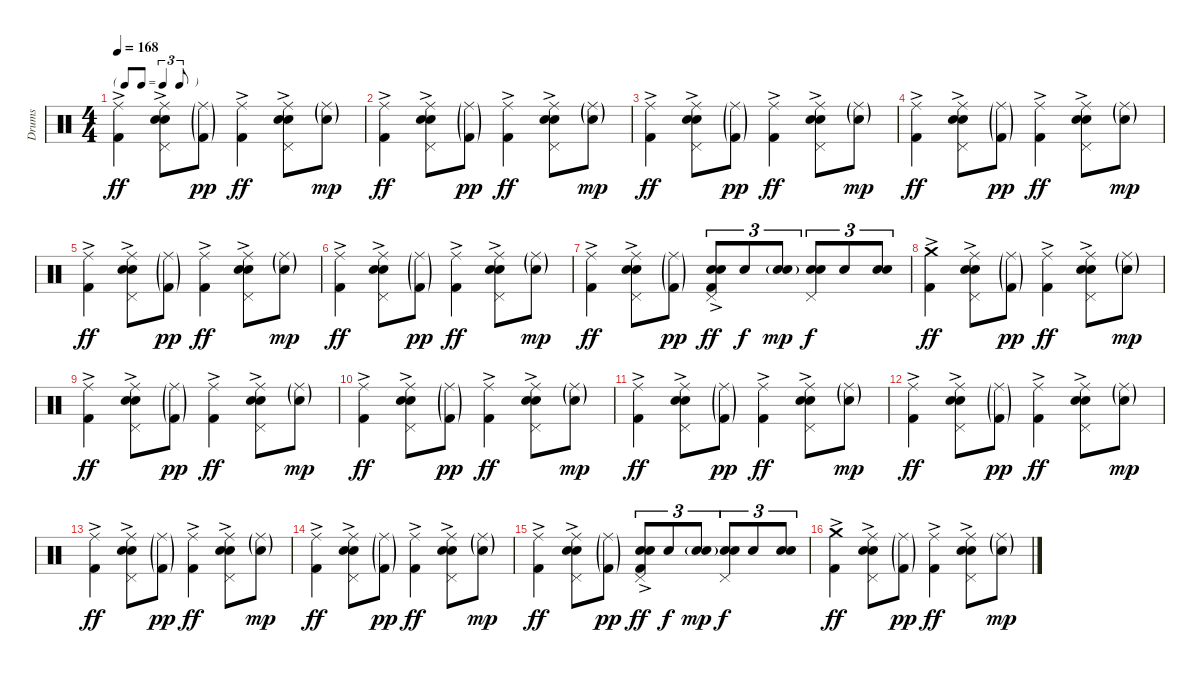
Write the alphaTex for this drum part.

\track ("Drums" "Drums") {instrument percussion}
\staff {score}
\articulation defaults
\ts (4 4)
\tf triplet8th
\tempo 168
\clef neutral
\ks c
("Ride (middle)" "Kick (hit) 2"{ac}).4{dy ff} ("Ride (middle)" "Pedal Hi-Hat (hit)" "Electric Snare (hit)"{ac} "Snare (hit) 2").8 ("Ride (middle)"{g} "Kick (hit) 2"{g}).8{dy pp} ("Ride (middle)" "Kick (hit) 2"{ac}).4{dy ff} ("Ride (middle)" "Pedal Hi-Hat (hit)" "Electric Snare (hit)"{ac} "Snare (hit) 2").8 ("Ride (middle)"{g} "Snare (hit) 2"{g}).8{dy mp} |
("Ride (middle)" "Kick (hit) 2"{ac}).4{dy ff} ("Ride (middle)" "Pedal Hi-Hat (hit)" "Electric Snare (hit)"{ac} "Snare (hit) 2").8 ("Ride (middle)"{g} "Kick (hit) 2"{g}).8{dy pp} ("Ride (middle)" "Kick (hit) 2"{ac}).4{dy ff} ("Ride (middle)" "Pedal Hi-Hat (hit)" "Electric Snare (hit)"{ac} "Snare (hit) 2").8 ("Ride (middle)"{g} "Snare (hit) 2"{g}).8{dy mp} |
("Ride (middle)" "Kick (hit) 2"{ac}).4{dy ff} ("Ride (middle)" "Pedal Hi-Hat (hit)" "Electric Snare (hit)"{ac} "Snare (hit) 2").8 ("Ride (middle)"{g} "Kick (hit) 2"{g}).8{dy pp} ("Ride (middle)" "Kick (hit) 2"{ac}).4{dy ff} ("Ride (middle)" "Pedal Hi-Hat (hit)" "Electric Snare (hit)"{ac} "Snare (hit) 2").8 ("Ride (middle)"{g} "Snare (hit) 2"{g}).8{dy mp} |
("Ride (middle)" "Kick (hit) 2"{ac}).4{dy ff} ("Ride (middle)" "Pedal Hi-Hat (hit)" "Electric Snare (hit)"{ac} "Snare (hit) 2").8 ("Ride (middle)"{g} "Kick (hit) 2"{g}).8{dy pp} ("Ride (middle)" "Kick (hit) 2"{ac}).4{dy ff} ("Ride (middle)" "Pedal Hi-Hat (hit)" "Electric Snare (hit)"{ac} "Snare (hit) 2").8 ("Ride (middle)"{g} "Snare (hit) 2"{g}).8{dy mp} |
("Ride (middle)" "Kick (hit) 2"{ac}).4{dy ff} ("Ride (middle)" "Pedal Hi-Hat (hit)" "Electric Snare (hit)"{ac} "Snare (hit) 2").8 ("Ride (middle)"{g} "Kick (hit) 2"{g}).8{dy pp} ("Ride (middle)" "Kick (hit) 2"{ac}).4{dy ff} ("Ride (middle)" "Pedal Hi-Hat (hit)" "Electric Snare (hit)"{ac} "Snare (hit) 2").8 ("Ride (middle)"{g} "Snare (hit) 2"{g}).8{dy mp} |
("Ride (middle)" "Kick (hit) 2"{ac}).4{dy ff} ("Ride (middle)" "Pedal Hi-Hat (hit)" "Electric Snare (hit)"{ac} "Snare (hit) 2").8 ("Ride (middle)"{g} "Kick (hit) 2"{g}).8{dy pp} ("Ride (middle)" "Kick (hit) 2"{ac}).4{dy ff} ("Ride (middle)" "Pedal Hi-Hat (hit)" "Electric Snare (hit)"{ac} "Snare (hit) 2").8 ("Ride (middle)"{g} "Snare (hit) 2"{g}).8{dy mp} |
("Ride (middle)" "Kick (hit) 2"{ac}).4{dy ff} ("Ride (middle)" "Pedal Hi-Hat (hit)" "Electric Snare (hit)"{ac} "Snare (hit) 2").8 ("Ride (middle)"{g} "Kick (hit) 2"{g}).8{dy pp} ("Pedal Hi-Hat (hit)" "Electric Snare (hit)" "Snare (hit) 2" "Kick (hit) 2"{ac}).8{tu (3 2) dy ff} "Snare (hit) 2".8{tu (3 2) dy f} ("Electric Snare (hit)"{g} "Snare (hit) 2").8{tu (3 2) dy mp} ("Pedal Hi-Hat (hit)" "Electric Snare (hit)" "Snare (hit) 2").8{tu (3 2) dy f} "Snare (hit) 2".8{tu (3 2)} ("Electric Snare (hit)" "Snare (hit) 2").8{tu (3 2)} |
("Crash medium (hit)" "Kick (hit) 2"{ac}).4{dy ff} ("Ride (middle)" "Pedal Hi-Hat (hit)" "Electric Snare (hit)"{ac} "Snare (hit) 2").8 ("Ride (middle)"{g} "Kick (hit) 2"{g}).8{dy pp} ("Ride (middle)" "Kick (hit) 2"{ac}).4{dy ff} ("Ride (middle)" "Pedal Hi-Hat (hit)" "Electric Snare (hit)"{ac} "Snare (hit) 2").8 ("Ride (middle)"{g} "Snare (hit) 2"{g}).8{dy mp} |
("Ride (middle)" "Kick (hit) 2"{ac}).4{dy ff} ("Ride (middle)" "Pedal Hi-Hat (hit)" "Electric Snare (hit)"{ac} "Snare (hit) 2").8 ("Ride (middle)"{g} "Kick (hit) 2"{g}).8{dy pp} ("Ride (middle)" "Kick (hit) 2"{ac}).4{dy ff} ("Ride (middle)" "Pedal Hi-Hat (hit)" "Electric Snare (hit)"{ac} "Snare (hit) 2").8 ("Ride (middle)"{g} "Snare (hit) 2"{g}).8{dy mp} |
("Ride (middle)" "Kick (hit) 2"{ac}).4{dy ff} ("Ride (middle)" "Pedal Hi-Hat (hit)" "Electric Snare (hit)"{ac} "Snare (hit) 2").8 ("Ride (middle)"{g} "Kick (hit) 2"{g}).8{dy pp} ("Ride (middle)" "Kick (hit) 2"{ac}).4{dy ff} ("Ride (middle)" "Pedal Hi-Hat (hit)" "Electric Snare (hit)"{ac} "Snare (hit) 2").8 ("Ride (middle)"{g} "Snare (hit) 2"{g}).8{dy mp} |
("Ride (middle)" "Kick (hit) 2"{ac}).4{dy ff} ("Ride (middle)" "Pedal Hi-Hat (hit)" "Electric Snare (hit)"{ac} "Snare (hit) 2").8 ("Ride (middle)"{g} "Kick (hit) 2"{g}).8{dy pp} ("Ride (middle)" "Kick (hit) 2"{ac}).4{dy ff} ("Ride (middle)" "Pedal Hi-Hat (hit)" "Electric Snare (hit)"{ac} "Snare (hit) 2").8 ("Ride (middle)"{g} "Snare (hit) 2"{g}).8{dy mp} |
("Ride (middle)" "Kick (hit) 2"{ac}).4{dy ff} ("Ride (middle)" "Pedal Hi-Hat (hit)" "Electric Snare (hit)"{ac} "Snare (hit) 2").8 ("Ride (middle)"{g} "Kick (hit) 2"{g}).8{dy pp} ("Ride (middle)" "Kick (hit) 2"{ac}).4{dy ff} ("Ride (middle)" "Pedal Hi-Hat (hit)" "Electric Snare (hit)"{ac} "Snare (hit) 2").8 ("Ride (middle)"{g} "Snare (hit) 2"{g}).8{dy mp} |
("Ride (middle)" "Kick (hit) 2"{ac}).4{dy ff} ("Ride (middle)" "Pedal Hi-Hat (hit)" "Electric Snare (hit)"{ac} "Snare (hit) 2").8 ("Ride (middle)"{g} "Kick (hit) 2"{g}).8{dy pp} ("Ride (middle)" "Kick (hit) 2"{ac}).4{dy ff} ("Ride (middle)" "Pedal Hi-Hat (hit)" "Electric Snare (hit)"{ac} "Snare (hit) 2").8 ("Ride (middle)"{g} "Snare (hit) 2"{g}).8{dy mp} |
("Ride (middle)" "Kick (hit) 2"{ac}).4{dy ff} ("Ride (middle)" "Pedal Hi-Hat (hit)" "Electric Snare (hit)"{ac} "Snare (hit) 2").8 ("Ride (middle)"{g} "Kick (hit) 2"{g}).8{dy pp} ("Ride (middle)" "Kick (hit) 2"{ac}).4{dy ff} ("Ride (middle)" "Pedal Hi-Hat (hit)" "Electric Snare (hit)"{ac} "Snare (hit) 2").8 ("Ride (middle)"{g} "Snare (hit) 2"{g}).8{dy mp} |
("Ride (middle)" "Kick (hit) 2"{ac}).4{dy ff} ("Ride (middle)" "Pedal Hi-Hat (hit)" "Electric Snare (hit)"{ac} "Snare (hit) 2").8 ("Ride (middle)"{g} "Kick (hit) 2"{g}).8{dy pp} ("Pedal Hi-Hat (hit)" "Electric Snare (hit)" "Snare (hit) 2" "Kick (hit) 2"{ac}).8{tu (3 2) dy ff} "Snare (hit) 2".8{tu (3 2) dy f} ("Electric Snare (hit)"{g} "Snare (hit) 2").8{tu (3 2) dy mp} ("Pedal Hi-Hat (hit)" "Electric Snare (hit)" "Snare (hit) 2").8{tu (3 2) dy f} "Snare (hit) 2".8{tu (3 2)} ("Electric Snare (hit)" "Snare (hit) 2").8{tu (3 2)} |
("Crash medium (hit)" "Kick (hit) 2"{ac}).4{dy ff} ("Ride (middle)" "Pedal Hi-Hat (hit)" "Electric Snare (hit)"{ac} "Snare (hit) 2").8 ("Ride (middle)"{g} "Kick (hit) 2"{g}).8{dy pp} ("Ride (middle)" "Kick (hit) 2"{ac}).4{dy ff} ("Ride (middle)" "Pedal Hi-Hat (hit)" "Electric Snare (hit)"{ac} "Snare (hit) 2").8 ("Ride (middle)"{g} "Snare (hit) 2"{g}).8{dy mp}
